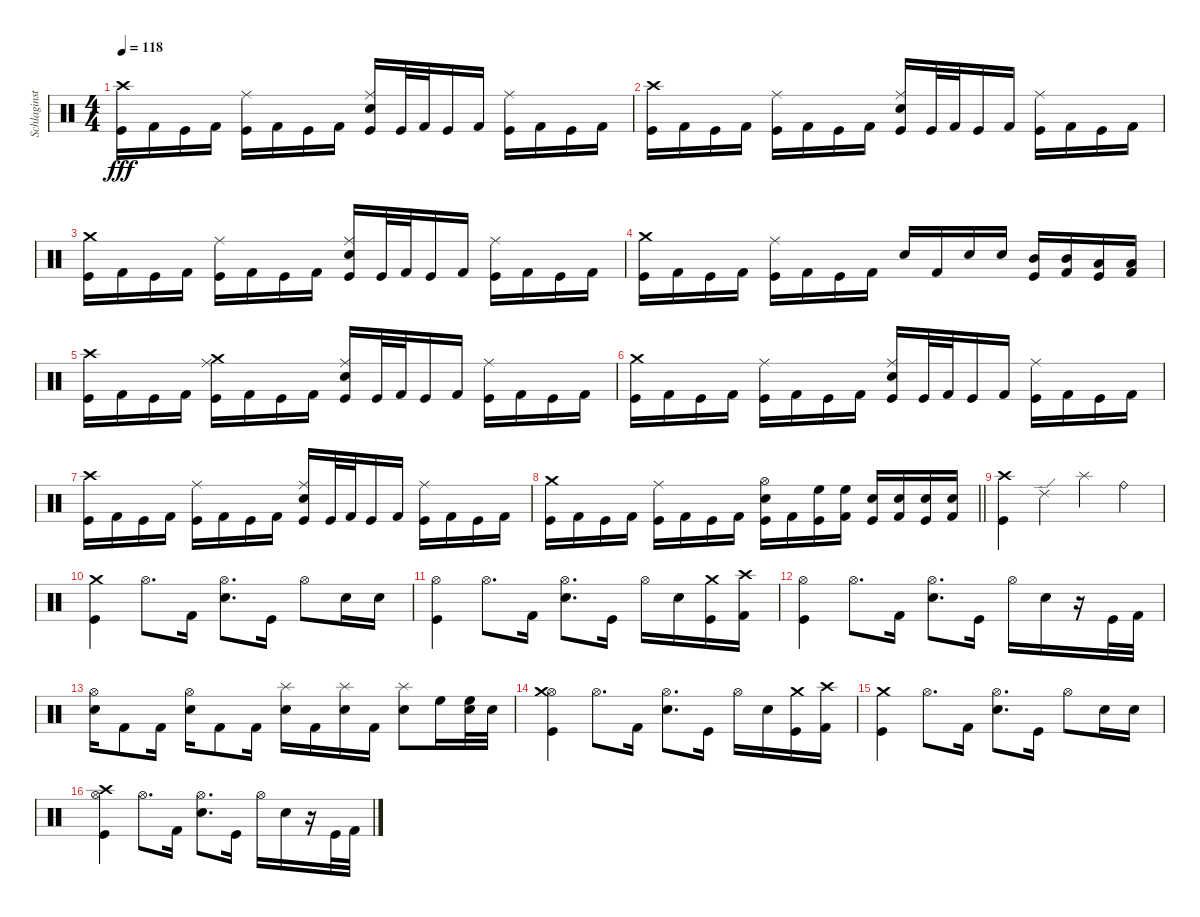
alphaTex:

\track ("Schlaginstrumente - Auswahl" "Schlaginst") {instrument percussion}
\staff {score}
\articulation defaults
\ts (4 4)
\tempo 118
\clef neutral
\ks c
("Crash high (hit)" "Kick (hit)").16{dy fff} "Kick (hit) 2".16 "Kick (hit)".16 "Kick (hit) 2".16 ("Ride (middle)" "Kick (hit)").16 "Kick (hit) 2".16 "Kick (hit)".16 "Kick (hit) 2".16 ("Ride (middle)" "Snare (hit) 2" "Kick (hit)").16 "Kick (hit)".32 "Kick (hit) 2".32 "Kick (hit)".16 "Kick (hit) 2".16 ("Ride (middle)" "Kick (hit)").16 "Kick (hit) 2".16 "Kick (hit)".16 "Kick (hit) 2".16 |
("Crash high (hit)" "Kick (hit)").16 "Kick (hit) 2".16 "Kick (hit)".16 "Kick (hit) 2".16 ("Ride (middle)" "Kick (hit)").16 "Kick (hit) 2".16 "Kick (hit)".16 "Kick (hit) 2".16 ("Ride (middle)" "Snare (hit) 2" "Kick (hit)").16 "Kick (hit)".32 "Kick (hit) 2".32 "Kick (hit)".16 "Kick (hit) 2".16 ("Ride (middle)" "Kick (hit)").16 "Kick (hit) 2".16 "Kick (hit)".16 "Kick (hit) 2".16 |
("Crash medium (hit)" "Kick (hit)").16 "Kick (hit) 2".16 "Kick (hit)".16 "Kick (hit) 2".16 ("Ride (middle)" "Kick (hit)").16 "Kick (hit) 2".16 "Kick (hit)".16 "Kick (hit) 2".16 ("Ride (middle)" "Snare (hit) 2" "Kick (hit)").16 "Kick (hit)".32 "Kick (hit) 2".32 "Kick (hit)".16 "Kick (hit) 2".16 ("Ride (middle)" "Kick (hit)").16 "Kick (hit) 2".16 "Kick (hit)".16 "Kick (hit) 2".16 |
("Crash medium (hit)" "Kick (hit)").16 "Kick (hit) 2".16 "Kick (hit)".16 "Kick (hit) 2".16 ("Ride (middle)" "Kick (hit)").16 "Kick (hit) 2".16 "Kick (hit)".16 "Kick (hit) 2".16 "Snare (hit) 2".16 "Kick (hit) 2".16 "Snare (hit) 2".16 "Snare (hit) 2".16 ("Mid Tom (hit)" "Kick (hit)").16 ("Mid Tom (hit)" "Kick (hit) 2").16 ("Low Tom (hit)" "Kick (hit)").16 ("Low Tom (hit)" "Kick (hit) 2").16 |
("Crash high (hit)" "Kick (hit)").16 "Kick (hit) 2".16 "Kick (hit)".16 "Kick (hit) 2".16 ("Ride (middle)" "Crash medium (hit)" "Kick (hit)").16 "Kick (hit) 2".16 "Kick (hit)".16 "Kick (hit) 2".16 ("Ride (middle)" "Snare (hit) 2" "Kick (hit)").16 "Kick (hit)".32 "Kick (hit) 2".32 "Kick (hit)".16 "Kick (hit) 2".16 ("Ride (middle)" "Kick (hit)").16 "Kick (hit) 2".16 "Kick (hit)".16 "Kick (hit) 2".16 |
("Crash medium (hit)" "Kick (hit)").16 "Kick (hit) 2".16 "Kick (hit)".16 "Kick (hit) 2".16 ("Ride (middle)" "Kick (hit)").16 "Kick (hit) 2".16 "Kick (hit)".16 "Kick (hit) 2".16 ("Ride (middle)" "Snare (hit) 2" "Kick (hit)").16 "Kick (hit)".32 "Kick (hit) 2".32 "Kick (hit)".16 "Kick (hit) 2".16 ("Ride (middle)" "Kick (hit)").16 "Kick (hit) 2".16 "Kick (hit)".16 "Kick (hit) 2".16 |
("Crash high (hit)" "Kick (hit)").16 "Kick (hit) 2".16 "Kick (hit)".16 "Kick (hit) 2".16 ("Ride (middle)" "Kick (hit)").16 "Kick (hit) 2".16 "Kick (hit)".16 "Kick (hit) 2".16 ("Ride (middle)" "Snare (hit) 2" "Kick (hit)").16 "Kick (hit)".32 "Kick (hit) 2".32 "Kick (hit)".16 "Kick (hit) 2".16 ("Ride (middle)" "Kick (hit)").16 "Kick (hit) 2".16 "Kick (hit)".16 "Kick (hit) 2".16 |
\barLineRight lightlight
("Crash medium (hit)" "Kick (hit)").16 "Kick (hit) 2".16 "Kick (hit)".16 "Kick (hit) 2".16 ("Ride (middle)" "Kick (hit)").16 "Kick (hit) 2".16 "Kick (hit)".16 "Kick (hit) 2".16 ("Hi-Hat (open)" "Snare (hit) 2" "Kick (hit)").16 "Kick (hit) 2".16 ("High Floor Tom (hit)" "Kick (hit)").16 ("High Floor Tom (hit)" "Kick (hit) 2").16 ("Snare (hit) 2" "Kick (hit)").16 ("Snare (hit) 2" "Kick (hit) 2").16 ("Snare (hit) 2" "Kick (hit)").16 ("Snare (hit) 2" "Kick (hit) 2").16 |
("Crash high (hit)" "Kick (hit)").4 "Ride (edge) 2".4 "Splash (hit)".4 "Ride (bell)".4 |
("Crash medium (hit)" "Kick (hit)").4 "Hi-Hat (open)".8{d} "Kick (hit) 2".16 ("Hi-Hat (open)" "Snare (hit) 2").8{d} "Kick (hit)".16 "Hi-Hat (open)".8 "Snare (hit) 2".16 "Snare (hit) 2".16 |
("Hi-Hat (open)" "Kick (hit)").4 "Hi-Hat (open)".8{d} "Kick (hit) 2".16 ("Hi-Hat (open)" "Snare (hit) 2").8{d} "Kick (hit)".16 "Hi-Hat (open)".16 "Snare (hit) 2".16 ("Crash medium (hit)" "Kick (hit)").16 ("Crash high (hit)" "Kick (hit) 2").16 |
("Hi-Hat (open)" "Kick (hit)").4 "Hi-Hat (open)".8{d} "Kick (hit) 2".16 ("Hi-Hat (open)" "Snare (hit) 2").8{d} "Kick (hit)".16 "Hi-Hat (open)".16 "Snare (hit) 2".16 r.16 "Kick (hit)".32 "Kick (hit) 2".32 |
("Hi-Hat (open)" "Snare (hit) 2").16 "Kick (hit) 2".8 "Kick (hit) 2".16 ("Hi-Hat (open)" "Snare (hit) 2").16 "Kick (hit) 2".8 "Kick (hit) 2".16 ("Splash (hit)" "Snare (hit) 2").16 "Kick (hit) 2".16 ("Splash (hit)" "Snare (hit) 2").16 "Kick (hit) 2".16 ("Splash (hit)" "Snare (hit) 2").8 "High Floor Tom (hit)".16 ("High Floor Tom (hit)" "Snare (hit) 2").32 "Snare (hit) 2".32 |
("Hi-Hat (open)" "Crash medium (hit)" "Kick (hit)").4 "Hi-Hat (open)".8{d} "Kick (hit) 2".16 ("Hi-Hat (open)" "Snare (hit) 2").8{d} "Kick (hit)".16 "Hi-Hat (open)".16 "Snare (hit) 2".16 ("Crash medium (hit)" "Kick (hit)").16 ("Crash high (hit)" "Kick (hit) 2").16 |
("Crash medium (hit)" "Kick (hit)").4 "Hi-Hat (open)".8{d} "Kick (hit) 2".16 ("Hi-Hat (open)" "Snare (hit) 2").8{d} "Kick (hit)".16 "Hi-Hat (open)".8 "Snare (hit) 2".16 "Snare (hit) 2".16 |
("Hi-Hat (open)" "Crash high (hit)" "Kick (hit)").4 "Hi-Hat (open)".8{d} "Kick (hit) 2".16 ("Hi-Hat (open)" "Snare (hit) 2").8{d} "Kick (hit)".16 "Hi-Hat (open)".16 "Snare (hit) 2".16 r.16 "Kick (hit)".32 "Kick (hit) 2".32
